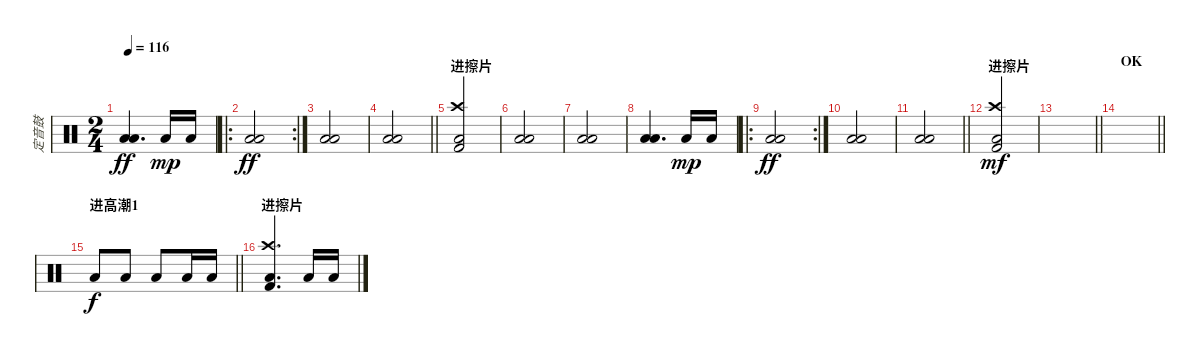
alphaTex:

\track ("定音鼓" "定音鼓") {instrument percussion}
\staff {score}
\articulation defaults
\ts (2 4)
\tempo 116
\clef neutral
\ks c
("Low Floor Tom (hit)" "Low Floor Tom (hit)").4{d dy ff} "Low Floor Tom (hit)".16{dy mp} "Low Floor Tom (hit)".16 |
\ro
\rc 2
("Low Floor Tom (hit)" "Low Floor Tom (hit)").2{dy ff} |
("Low Floor Tom (hit)" "Low Floor Tom (hit)").2 |
\barLineRight lightlight
("Low Floor Tom (hit)" "Low Floor Tom (hit)").2 |
\section ("" "进擦片")
("Crash high (hit)" "Kick (hit) 2" "Low Floor Tom (hit)").2 |
("Low Floor Tom (hit)" "Low Floor Tom (hit)").2 |
("Low Floor Tom (hit)" "Low Floor Tom (hit)").2 |
("Low Floor Tom (hit)" "Low Floor Tom (hit)").4{d} "Low Floor Tom (hit)".16{dy mp} "Low Floor Tom (hit)".16 |
\ro
\rc 2
("Low Floor Tom (hit)" "Low Floor Tom (hit)").2{dy ff} |
("Low Floor Tom (hit)" "Low Floor Tom (hit)").2 |
\barLineRight lightlight
("Low Floor Tom (hit)" "Low Floor Tom (hit)").2 |
\section ("" "进擦片")
("Crash high (hit)" "Kick (hit) 2" "Low Floor Tom (hit)").2{dy mf} |
\barLineRight lightlight
|
\section ("" "OK")
\barLineRight lightlight
|
\section ("" "进高潮1")
\barLineRight lightlight "Low Floor Tom (hit)".8{dy f} "Low Floor Tom (hit)".8 "Low Floor Tom (hit)".8 "Low Floor Tom (hit)".16 "Low Floor Tom (hit)".16
|
\section ("" "进擦片")
("Crash high (hit)" "Low Floor Tom (hit)" "Kick (hit) 2").4{d} "Low Floor Tom (hit)".16 "Low Floor Tom (hit)".16
